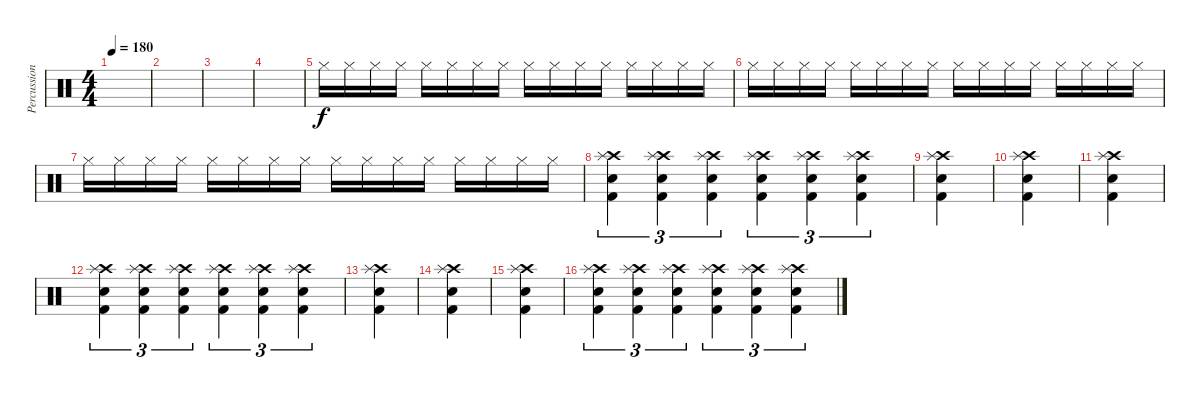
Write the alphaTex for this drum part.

\track ("Percussion" "Percussion") {instrument percussion}
\staff {score}
\articulation defaults
\ts (4 4)
\tempo 180
\clef neutral
\ks c
|
|
|
|
"Hi-Hat (closed)".16 "Hi-Hat (closed)".16 "Hi-Hat (closed)".16 "Hi-Hat (closed)".16 "Hi-Hat (closed)".16 "Hi-Hat (closed)".16 "Hi-Hat (closed)".16 "Hi-Hat (closed)".16 "Hi-Hat (closed)".16 "Hi-Hat (closed)".16 "Hi-Hat (closed)".16 "Hi-Hat (closed)".16 "Hi-Hat (closed)".16 "Hi-Hat (closed)".16 "Hi-Hat (closed)".16 "Hi-Hat (closed)".16 |
"Hi-Hat (closed)".16 "Hi-Hat (closed)".16 "Hi-Hat (closed)".16 "Hi-Hat (closed)".16 "Hi-Hat (closed)".16 "Hi-Hat (closed)".16 "Hi-Hat (closed)".16 "Hi-Hat (closed)".16 "Hi-Hat (closed)".16 "Hi-Hat (closed)".16 "Hi-Hat (closed)".16 "Hi-Hat (closed)".16 "Hi-Hat (closed)".16 "Hi-Hat (closed)".16 "Hi-Hat (closed)".16 "Hi-Hat (closed)".16 |
"Hi-Hat (closed)".16 "Hi-Hat (closed)".16 "Hi-Hat (closed)".16 "Hi-Hat (closed)".16 "Hi-Hat (closed)".16 "Hi-Hat (closed)".16 "Hi-Hat (closed)".16 "Hi-Hat (closed)".16 "Hi-Hat (closed)".16 "Hi-Hat (closed)".16 "Hi-Hat (closed)".16 "Hi-Hat (closed)".16 "Hi-Hat (closed)".16 "Hi-Hat (closed)".16 "Hi-Hat (closed)".16 "Hi-Hat (closed)".16 |
("Crash high (hit)" "Splash (hit)" "Kick (hit) 2" "Electric Snare (hit)").4{tu (3 2)} ("Crash high (hit)" "Splash (hit)" "Kick (hit) 2" "Electric Snare (hit)").4{tu (3 2)} ("Crash high (hit)" "Splash (hit)" "Kick (hit) 2" "Electric Snare (hit)").4{tu (3 2)} ("Crash high (hit)" "Splash (hit)" "Kick (hit) 2" "Electric Snare (hit)").4{tu (3 2)} ("Crash high (hit)" "Splash (hit)" "Kick (hit) 2" "Electric Snare (hit)").4{tu (3 2)} ("Crash high (hit)" "Splash (hit)" "Kick (hit) 2" "Electric Snare (hit)").4{tu (3 2)} |
("Crash high (hit)" "Splash (hit)" "Kick (hit) 2" "Electric Snare (hit)").4 |
("Crash high (hit)" "Splash (hit)" "Kick (hit) 2" "Electric Snare (hit)").4 |
("Crash high (hit)" "Splash (hit)" "Kick (hit) 2" "Electric Snare (hit)").4 |
("Crash high (hit)" "Splash (hit)" "Kick (hit) 2" "Electric Snare (hit)").4{tu (3 2)} ("Crash high (hit)" "Splash (hit)" "Kick (hit) 2" "Electric Snare (hit)").4{tu (3 2)} ("Crash high (hit)" "Splash (hit)" "Kick (hit) 2" "Electric Snare (hit)").4{tu (3 2)} ("Crash high (hit)" "Splash (hit)" "Kick (hit) 2" "Electric Snare (hit)").4{tu (3 2)} ("Crash high (hit)" "Splash (hit)" "Kick (hit) 2" "Electric Snare (hit)").4{tu (3 2)} ("Crash high (hit)" "Splash (hit)" "Kick (hit) 2" "Electric Snare (hit)").4{tu (3 2)} |
("Crash high (hit)" "Splash (hit)" "Kick (hit) 2" "Electric Snare (hit)").4 |
("Crash high (hit)" "Splash (hit)" "Kick (hit) 2" "Electric Snare (hit)").4 |
("Crash high (hit)" "Splash (hit)" "Kick (hit) 2" "Electric Snare (hit)").4 |
("Crash high (hit)" "Splash (hit)" "Kick (hit) 2" "Electric Snare (hit)").4{tu (3 2)} ("Crash high (hit)" "Splash (hit)" "Kick (hit) 2" "Electric Snare (hit)").4{tu (3 2)} ("Crash high (hit)" "Splash (hit)" "Kick (hit) 2" "Electric Snare (hit)").4{tu (3 2)} ("Crash high (hit)" "Splash (hit)" "Kick (hit) 2" "Electric Snare (hit)").4{tu (3 2)} ("Crash high (hit)" "Splash (hit)" "Kick (hit) 2" "Electric Snare (hit)").4{tu (3 2)} ("Crash high (hit)" "Splash (hit)" "Kick (hit) 2" "Electric Snare (hit)").4{tu (3 2)}
